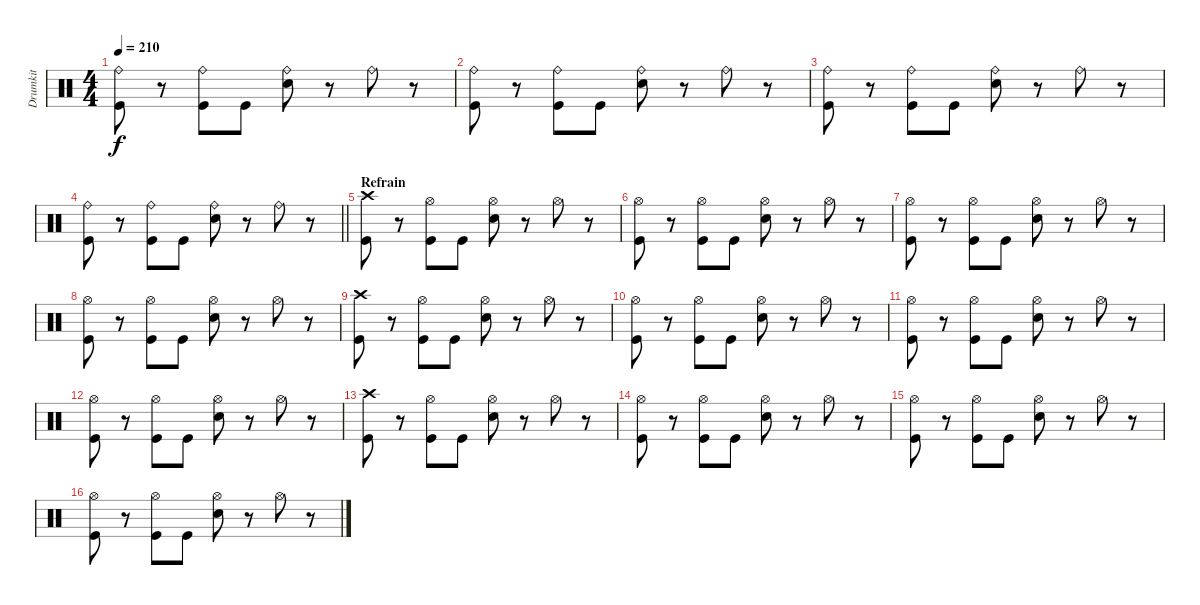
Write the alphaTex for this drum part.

\track ("Drumkit" "Drumkit") {instrument percussion}
\staff {score}
\articulation defaults
\ts (4 4)
\tempo 210
\clef neutral
\ks c
("Ride (bell)" "Kick (hit)").8{dy f} r.8 ("Ride (bell)" "Kick (hit)").8 "Kick (hit)".8 ("Ride (bell)" "Snare (hit) 2").8 r.8 "Ride (bell)".8 r.8 |
("Ride (bell)" "Kick (hit)").8 r.8 ("Ride (bell)" "Kick (hit)").8 "Kick (hit)".8 ("Ride (bell)" "Snare (hit) 2").8 r.8 "Ride (bell)".8 r.8 |
("Ride (bell)" "Kick (hit)").8 r.8 ("Ride (bell)" "Kick (hit)").8 "Kick (hit)".8 ("Ride (bell)" "Snare (hit) 2").8 r.8 "Ride (bell)".8 r.8 |
\barLineRight lightlight
("Ride (bell)" "Kick (hit)").8 r.8 ("Ride (bell)" "Kick (hit)").8 "Kick (hit)".8 ("Ride (bell)" "Snare (hit) 2").8 r.8 "Ride (bell)".8 r.8 |
\section ("" "Refrain")
("Crash high (hit)" "Kick (hit)").8 r.8 ("Hi-Hat (open)" "Kick (hit)").8 "Kick (hit)".8 ("Hi-Hat (open)" "Snare (hit) 2").8 r.8 "Hi-Hat (open)".8 r.8 |
("Hi-Hat (open)" "Kick (hit)").8 r.8 ("Hi-Hat (open)" "Kick (hit)").8 "Kick (hit)".8 ("Hi-Hat (open)" "Snare (hit) 2").8 r.8 "Hi-Hat (open)".8 r.8 |
("Hi-Hat (open)" "Kick (hit)").8 r.8 ("Hi-Hat (open)" "Kick (hit)").8 "Kick (hit)".8 ("Hi-Hat (open)" "Snare (hit) 2").8 r.8 "Hi-Hat (open)".8 r.8 |
("Hi-Hat (open)" "Kick (hit)").8 r.8 ("Hi-Hat (open)" "Kick (hit)").8 "Kick (hit)".8 ("Hi-Hat (open)" "Snare (hit) 2").8 r.8 "Hi-Hat (open)".8 r.8 |
("Crash high (hit)" "Kick (hit)").8 r.8 ("Hi-Hat (open)" "Kick (hit)").8 "Kick (hit)".8 ("Hi-Hat (open)" "Snare (hit) 2").8 r.8 "Hi-Hat (open)".8 r.8 |
("Hi-Hat (open)" "Kick (hit)").8 r.8 ("Hi-Hat (open)" "Kick (hit)").8 "Kick (hit)".8 ("Hi-Hat (open)" "Snare (hit) 2").8 r.8 "Hi-Hat (open)".8 r.8 |
("Hi-Hat (open)" "Kick (hit)").8 r.8 ("Hi-Hat (open)" "Kick (hit)").8 "Kick (hit)".8 ("Hi-Hat (open)" "Snare (hit) 2").8 r.8 "Hi-Hat (open)".8 r.8 |
("Hi-Hat (open)" "Kick (hit)").8 r.8 ("Hi-Hat (open)" "Kick (hit)").8 "Kick (hit)".8 ("Hi-Hat (open)" "Snare (hit) 2").8 r.8 "Hi-Hat (open)".8 r.8 |
("Crash high (hit)" "Kick (hit)").8 r.8 ("Hi-Hat (open)" "Kick (hit)").8 "Kick (hit)".8 ("Hi-Hat (open)" "Snare (hit) 2").8 r.8 "Hi-Hat (open)".8 r.8 |
("Hi-Hat (open)" "Kick (hit)").8 r.8 ("Hi-Hat (open)" "Kick (hit)").8 "Kick (hit)".8 ("Hi-Hat (open)" "Snare (hit) 2").8 r.8 "Hi-Hat (open)".8 r.8 |
("Hi-Hat (open)" "Kick (hit)").8 r.8 ("Hi-Hat (open)" "Kick (hit)").8 "Kick (hit)".8 ("Hi-Hat (open)" "Snare (hit) 2").8 r.8 "Hi-Hat (open)".8 r.8 |
("Hi-Hat (open)" "Kick (hit)").8 r.8 ("Hi-Hat (open)" "Kick (hit)").8 "Kick (hit)".8 ("Hi-Hat (open)" "Snare (hit) 2").8 r.8 "Hi-Hat (open)".8 r.8
